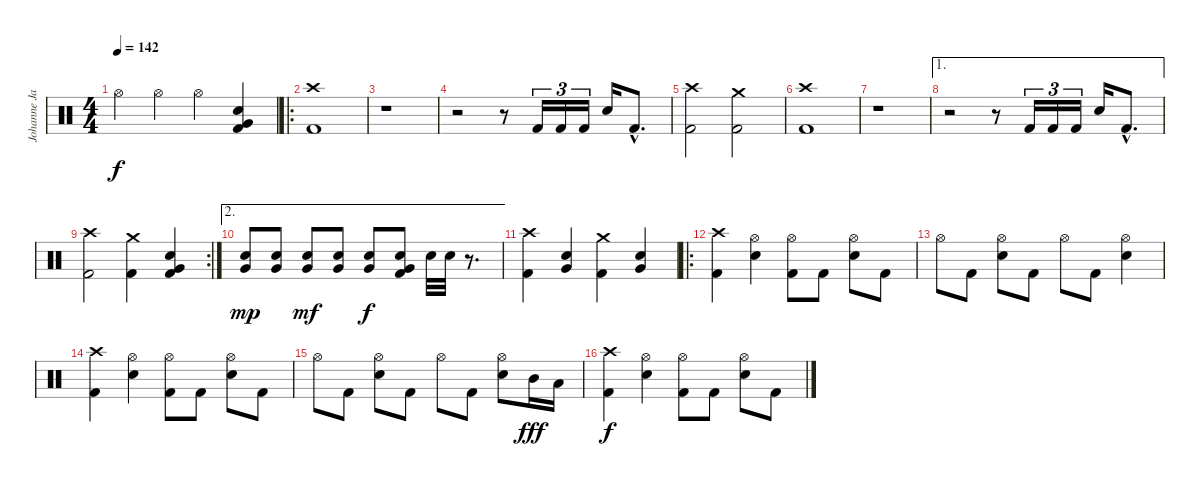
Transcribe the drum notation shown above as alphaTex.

\track ("Johanne James" "Johanne Ja") {instrument percussion}
\staff {score}
\articulation defaults
\ts (4 4)
\tempo 142
\clef neutral
\ks c "Hi-Hat (open)".4{dy f} "Hi-Hat (open)".4 "Hi-Hat (open)".4
("Very Low Tom (hit)" "Snare (hit) 2" "Kick (hit) 2").4 |
\ro
("Crash high (hit)" "Kick (hit) 2").1 |
r.1 |
r.2 r.8 "Kick (hit) 2".16{tu (3 2)} "Kick (hit) 2".16{tu (3 2)} "Kick (hit) 2".16{tu (3 2)} "Snare (hit) 2".16 "Kick (hit) 2"{hac}.8{d} |
("Crash high (hit)" "Kick (hit) 2").2 ("Crash medium (hit)" "Kick (hit) 2").2 |
("Crash high (hit)" "Kick (hit) 2").1 |
r.1 |
\ae 1
r.2 r.8 "Kick (hit) 2".16{tu (3 2)} "Kick (hit) 2".16{tu (3 2)} "Kick (hit) 2".16{tu (3 2)} "Snare (hit) 2".16 "Kick (hit) 2"{hac}.8{d} |
\rc 2
("Crash high (hit)" "Kick (hit) 2").2 ("Crash medium (hit)" "Kick (hit) 2").4 ("Very Low Tom (hit)" "Snare (hit) 2" "Kick (hit) 2").4 |
\ae 2
("Very Low Tom (hit)" "Snare (hit) 2").8{dy mp} ("Very Low Tom (hit)" "Snare (hit) 2").8 ("Very Low Tom (hit)" "Snare (hit) 2").8{dy mf} ("Very Low Tom (hit)" "Snare (hit) 2").8 ("Very Low Tom (hit)" "Snare (hit) 2").8{dy f} ("Very Low Tom (hit)" "Snare (hit) 2" "Kick (hit) 2").8 "Snare (hit) 2".32 "Snare (hit) 2".32 r.8{d} |
("Crash high (hit)" "Kick (hit) 2").4 ("Very Low Tom (hit)" "Snare (hit) 2").4 ("Crash medium (hit)" "Kick (hit) 2").4 ("Very Low Tom (hit)" "Snare (hit) 2").4 |
\ro
("Crash high (hit)" "Kick (hit) 2").4 ("Hi-Hat (open)" "Snare (hit) 2").4 ("Hi-Hat (open)" "Kick (hit) 2").8 "Kick (hit) 2".8 ("Hi-Hat (open)" "Snare (hit) 2").8 "Kick (hit) 2".8 |
"Hi-Hat (open)".8 "Kick (hit) 2".8 ("Hi-Hat (open)" "Snare (hit) 2").8 "Kick (hit) 2".8 "Hi-Hat (open)".8 "Kick (hit) 2".8 ("Hi-Hat (open)" "Snare (hit) 2").4 |
("Crash high (hit)" "Kick (hit) 2").4 ("Hi-Hat (open)" "Snare (hit) 2").4 ("Hi-Hat (open)" "Kick (hit) 2").8 "Kick (hit) 2".8 ("Hi-Hat (open)" "Snare (hit) 2").8 "Kick (hit) 2".8 |
"Hi-Hat (open)".8 "Kick (hit) 2".8 ("Hi-Hat (open)" "Snare (hit) 2").8 "Kick (hit) 2".8 "Hi-Hat (open)".8 "Kick (hit) 2".8 ("Hi-Hat (open)" "Snare (hit) 2").8 "Mid Tom (hit)".16{dy fff} "Low Tom (hit)".16 |
("Crash high (hit)" "Kick (hit) 2").4{dy f} ("Hi-Hat (open)" "Snare (hit) 2").4 ("Hi-Hat (open)" "Kick (hit) 2").8 "Kick (hit) 2".8 ("Hi-Hat (open)" "Snare (hit) 2").8 "Kick (hit) 2".8
